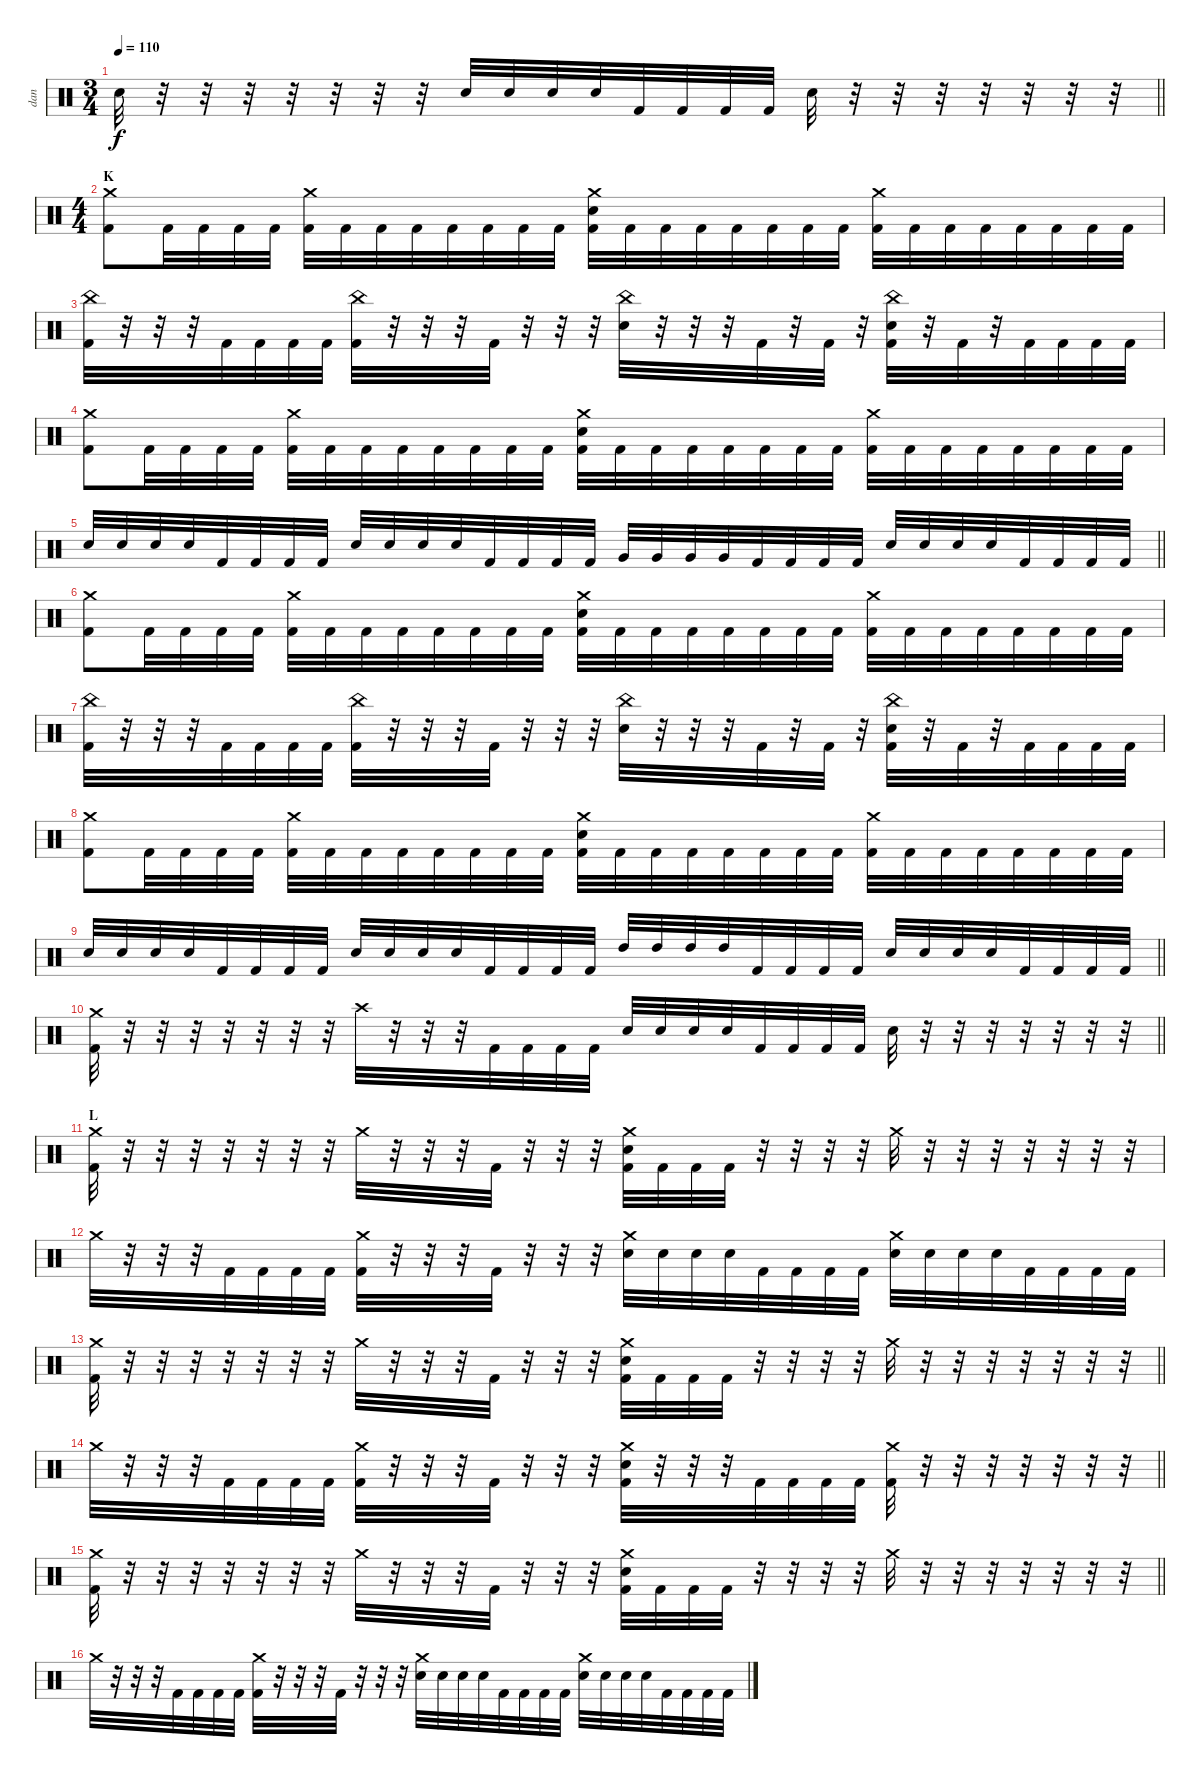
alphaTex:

\track ("dan" "dan") {instrument percussion}
\staff {score}
\articulation defaults
\ts (3 4)
\tempo 110
\clef neutral
\barLineRight lightlight
\ks c "Electric Snare (hit)".32{dy f}
r.32 r.32 r.32 r.32 r.32 r.32 r.32 "Electric Snare (hit)".32 "Electric Snare (hit)".32 "Electric Snare (hit)".32 "Electric Snare (hit)".32 "Kick (hit) 2".32 "Kick (hit) 2".32 "Kick (hit) 2".32 "Kick (hit) 2".32 "Electric Snare (hit)".32 r.32 r.32 r.32 r.32 r.32 r.32 r.32 |
\ts (4 4)
\section ("" "K")
("Crash medium (hit)" "Kick (hit) 2").8 "Kick (hit) 2".32 "Kick (hit) 2".32 "Kick (hit) 2".32 "Kick (hit) 2".32 ("Crash medium (hit)" "Kick (hit) 2").32 "Kick (hit) 2".32 "Kick (hit) 2".32 "Kick (hit) 2".32 "Kick (hit) 2".32 "Kick (hit) 2".32 "Kick (hit) 2".32 "Kick (hit) 2".32 ("Crash medium (hit)" "Electric Snare (hit)" "Kick (hit) 2").32 "Kick (hit) 2".32 "Kick (hit) 2".32 "Kick (hit) 2".32 "Kick (hit) 2".32 "Kick (hit) 2".32 "Kick (hit) 2".32 "Kick (hit) 2".32 ("Crash medium (hit)" "Kick (hit) 2").32 "Kick (hit) 2".32 "Kick (hit) 2".32 "Kick (hit) 2".32 "Kick (hit) 2".32 "Kick (hit) 2".32 "Kick (hit) 2".32 "Kick (hit) 2".32 |
("China (hit)" "Kick (hit) 2").32 r.32 r.32 r.32 "Kick (hit) 2".32 "Kick (hit) 2".32 "Kick (hit) 2".32 "Kick (hit) 2".32 ("China (hit)" "Kick (hit) 2").32 r.32 r.32 r.32 "Kick (hit) 2".32 r.32 r.32 r.32 ("China (hit)" "Electric Snare (hit)").32 r.32 r.32 r.32 "Kick (hit) 2".32 r.32 "Kick (hit) 2".32 r.32 ("China (hit)" "Electric Snare (hit)" "Kick (hit) 2").32 r.32 "Kick (hit) 2".32 r.32 "Kick (hit) 2".32 "Kick (hit) 2".32 "Kick (hit) 2".32 "Kick (hit) 2".32 |
("Crash medium (hit)" "Kick (hit) 2").8 "Kick (hit) 2".32 "Kick (hit) 2".32 "Kick (hit) 2".32 "Kick (hit) 2".32 ("Crash medium (hit)" "Kick (hit) 2").32 "Kick (hit) 2".32 "Kick (hit) 2".32 "Kick (hit) 2".32 "Kick (hit) 2".32 "Kick (hit) 2".32 "Kick (hit) 2".32 "Kick (hit) 2".32 ("Crash medium (hit)" "Electric Snare (hit)" "Kick (hit) 2").32 "Kick (hit) 2".32 "Kick (hit) 2".32 "Kick (hit) 2".32 "Kick (hit) 2".32 "Kick (hit) 2".32 "Kick (hit) 2".32 "Kick (hit) 2".32 ("Crash medium (hit)" "Kick (hit) 2").32 "Kick (hit) 2".32 "Kick (hit) 2".32 "Kick (hit) 2".32 "Kick (hit) 2".32 "Kick (hit) 2".32 "Kick (hit) 2".32 "Kick (hit) 2".32 |
\barLineRight lightlight "Electric Snare (hit)".32 "Electric Snare (hit)".32 "Electric Snare (hit)".32 "Electric Snare (hit)".32 "Kick (hit) 2".32 "Kick (hit) 2".32 "Kick (hit) 2".32 "Kick (hit) 2".32 "Electric Snare (hit)".32 "Electric Snare (hit)".32 "Electric Snare (hit)".32 "Electric Snare (hit)".32 "Kick (hit) 2".32 "Kick (hit) 2".32 "Kick (hit) 2".32 "Kick (hit) 2".32 "Very Low Tom (hit)".32 "Very Low Tom (hit)".32 "Very Low Tom (hit)".32 "Very Low Tom (hit)".32 "Kick (hit) 2".32 "Kick (hit) 2".32 "Kick (hit) 2".32 "Kick (hit) 2".32 "Electric Snare (hit)".32 "Electric Snare (hit)".32 "Electric Snare (hit)".32 "Electric Snare (hit)".32 "Kick (hit) 2".32 "Kick (hit) 2".32 "Kick (hit) 2".32 "Kick (hit) 2".32
|
("Crash medium (hit)" "Kick (hit) 2").8 "Kick (hit) 2".32 "Kick (hit) 2".32 "Kick (hit) 2".32 "Kick (hit) 2".32 ("Crash medium (hit)" "Kick (hit) 2").32 "Kick (hit) 2".32 "Kick (hit) 2".32 "Kick (hit) 2".32 "Kick (hit) 2".32 "Kick (hit) 2".32 "Kick (hit) 2".32 "Kick (hit) 2".32 ("Crash medium (hit)" "Electric Snare (hit)" "Kick (hit) 2").32 "Kick (hit) 2".32 "Kick (hit) 2".32 "Kick (hit) 2".32 "Kick (hit) 2".32 "Kick (hit) 2".32 "Kick (hit) 2".32 "Kick (hit) 2".32 ("Crash medium (hit)" "Kick (hit) 2").32 "Kick (hit) 2".32 "Kick (hit) 2".32 "Kick (hit) 2".32 "Kick (hit) 2".32 "Kick (hit) 2".32 "Kick (hit) 2".32 "Kick (hit) 2".32 |
("China (hit)" "Kick (hit) 2").32 r.32 r.32 r.32 "Kick (hit) 2".32 "Kick (hit) 2".32 "Kick (hit) 2".32 "Kick (hit) 2".32 ("China (hit)" "Kick (hit) 2").32 r.32 r.32 r.32 "Kick (hit) 2".32 r.32 r.32 r.32 ("China (hit)" "Electric Snare (hit)").32 r.32 r.32 r.32 "Kick (hit) 2".32 r.32 "Kick (hit) 2".32 r.32 ("China (hit)" "Electric Snare (hit)" "Kick (hit) 2").32 r.32 "Kick (hit) 2".32 r.32 "Kick (hit) 2".32 "Kick (hit) 2".32 "Kick (hit) 2".32 "Kick (hit) 2".32 |
("Crash medium (hit)" "Kick (hit) 2").8 "Kick (hit) 2".32 "Kick (hit) 2".32 "Kick (hit) 2".32 "Kick (hit) 2".32 ("Crash medium (hit)" "Kick (hit) 2").32 "Kick (hit) 2".32 "Kick (hit) 2".32 "Kick (hit) 2".32 "Kick (hit) 2".32 "Kick (hit) 2".32 "Kick (hit) 2".32 "Kick (hit) 2".32 ("Crash medium (hit)" "Electric Snare (hit)" "Kick (hit) 2").32 "Kick (hit) 2".32 "Kick (hit) 2".32 "Kick (hit) 2".32 "Kick (hit) 2".32 "Kick (hit) 2".32 "Kick (hit) 2".32 "Kick (hit) 2".32 ("Crash medium (hit)" "Kick (hit) 2").32 "Kick (hit) 2".32 "Kick (hit) 2".32 "Kick (hit) 2".32 "Kick (hit) 2".32 "Kick (hit) 2".32 "Kick (hit) 2".32 "Kick (hit) 2".32 |
\barLineRight lightlight "Electric Snare (hit)".32 "Electric Snare (hit)".32 "Electric Snare (hit)".32 "Electric Snare (hit)".32 "Kick (hit) 2".32 "Kick (hit) 2".32 "Kick (hit) 2".32 "Kick (hit) 2".32 "Electric Snare (hit)".32 "Electric Snare (hit)".32 "Electric Snare (hit)".32 "Electric Snare (hit)".32 "Kick (hit) 2".32 "Kick (hit) 2".32 "Kick (hit) 2".32 "Kick (hit) 2".32 "High Tom (hit)".32 "High Tom (hit)".32 "High Tom (hit)".32 "High Tom (hit)".32 "Kick (hit) 2".32 "Kick (hit) 2".32 "Kick (hit) 2".32 "Kick (hit) 2".32 "Electric Snare (hit)".32 "Electric Snare (hit)".32 "Electric Snare (hit)".32 "Electric Snare (hit)".32 "Kick (hit) 2".32 "Kick (hit) 2".32 "Kick (hit) 2".32 "Kick (hit) 2".32
|
\barLineRight lightlight
("Crash medium (hit)" "Kick (hit) 2").32 r.32 r.32 r.32 r.32 r.32 r.32 r.32 "Crash high (hit)".32 r.32 r.32 r.32 "Kick (hit) 2".32 "Kick (hit) 2".32 "Kick (hit) 2".32 "Kick (hit) 2".32 "Electric Snare (hit)".32 "Electric Snare (hit)".32 "Electric Snare (hit)".32 "Electric Snare (hit)".32 "Kick (hit) 2".32 "Kick (hit) 2".32 "Kick (hit) 2".32 "Kick (hit) 2".32 "Electric Snare (hit)".32 r.32 r.32 r.32 r.32 r.32 r.32 r.32 |
\section ("" "L")
("Crash medium (hit)" "Kick (hit) 2").32 r.32 r.32 r.32 r.32 r.32 r.32 r.32 "Crash medium (hit)".32 r.32 r.32 r.32 "Kick (hit) 2".32 r.32 r.32 r.32 ("Crash medium (hit)" "Electric Snare (hit)" "Kick (hit) 2").32 "Kick (hit) 2".32 "Kick (hit) 2".32 "Kick (hit) 2".32 r.32 r.32 r.32 r.32 "Crash medium (hit)".32 r.32 r.32 r.32 r.32 r.32 r.32 r.32 |
"Crash medium (hit)".32 r.32 r.32 r.32 "Kick (hit) 2".32 "Kick (hit) 2".32 "Kick (hit) 2".32 "Kick (hit) 2".32 ("Crash medium (hit)" "Kick (hit) 2").32 r.32 r.32 r.32 "Kick (hit) 2".32 r.32 r.32 r.32 ("Crash medium (hit)" "Electric Snare (hit)").32 "Electric Snare (hit)".32 "Electric Snare (hit)".32 "Electric Snare (hit)".32 "Kick (hit) 2".32 "Kick (hit) 2".32 "Kick (hit) 2".32 "Kick (hit) 2".32 ("Crash medium (hit)" "Electric Snare (hit)").32 "Electric Snare (hit)".32 "Electric Snare (hit)".32 "Electric Snare (hit)".32 "Kick (hit) 2".32 "Kick (hit) 2".32 "Kick (hit) 2".32 "Kick (hit) 2".32 |
\barLineRight lightlight
("Crash medium (hit)" "Kick (hit) 2").32 r.32 r.32 r.32 r.32 r.32 r.32 r.32 "Crash medium (hit)".32 r.32 r.32 r.32 "Kick (hit) 2".32 r.32 r.32 r.32 ("Crash medium (hit)" "Electric Snare (hit)" "Kick (hit) 2").32 "Kick (hit) 2".32 "Kick (hit) 2".32 "Kick (hit) 2".32 r.32 r.32 r.32 r.32 "Crash medium (hit)".32 r.32 r.32 r.32 r.32 r.32 r.32 r.32 |
\barLineRight lightlight "Crash medium (hit)".32
r.32 r.32 r.32 "Kick (hit) 2".32 "Kick (hit) 2".32 "Kick (hit) 2".32 "Kick (hit) 2".32 ("Crash medium (hit)" "Kick (hit) 2").32 r.32 r.32 r.32 "Kick (hit) 2".32 r.32 r.32 r.32 ("Crash medium (hit)" "Electric Snare (hit)" "Kick (hit) 2").32 r.32 r.32 r.32 "Kick (hit) 2".32 "Kick (hit) 2".32 "Kick (hit) 2".32 "Kick (hit) 2".32 ("Crash medium (hit)" "Kick (hit) 2").32 r.32 r.32 r.32 r.32 r.32 r.32 r.32 |
\barLineRight lightlight
("Crash medium (hit)" "Kick (hit) 2").32 r.32 r.32 r.32 r.32 r.32 r.32 r.32 "Crash medium (hit)".32 r.32 r.32 r.32 "Kick (hit) 2".32 r.32 r.32 r.32 ("Crash medium (hit)" "Electric Snare (hit)" "Kick (hit) 2").32 "Kick (hit) 2".32 "Kick (hit) 2".32 "Kick (hit) 2".32 r.32 r.32 r.32 r.32 "Crash medium (hit)".32 r.32 r.32 r.32 r.32 r.32 r.32 r.32 |
"Crash medium (hit)".32 r.32 r.32 r.32 "Kick (hit) 2".32 "Kick (hit) 2".32 "Kick (hit) 2".32 "Kick (hit) 2".32 ("Crash medium (hit)" "Kick (hit) 2").32 r.32 r.32 r.32 "Kick (hit) 2".32 r.32 r.32 r.32 ("Crash medium (hit)" "Electric Snare (hit)").32 "Electric Snare (hit)".32 "Electric Snare (hit)".32 "Electric Snare (hit)".32 "Kick (hit) 2".32 "Kick (hit) 2".32 "Kick (hit) 2".32 "Kick (hit) 2".32 ("Crash medium (hit)" "Electric Snare (hit)").32 "Electric Snare (hit)".32 "Electric Snare (hit)".32 "Electric Snare (hit)".32 "Kick (hit) 2".32 "Kick (hit) 2".32 "Kick (hit) 2".32 "Kick (hit) 2".32
